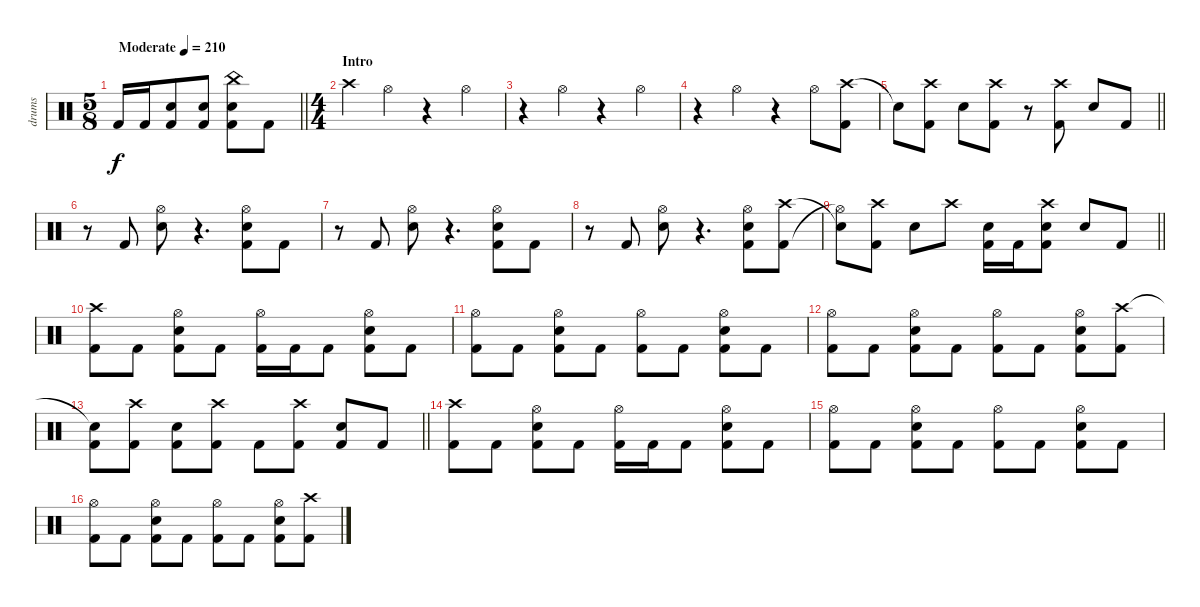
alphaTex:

\track ("drums" "drums") {solo instrument percussion}
\staff {score}
\articulation defaults
\ts (5 8)
\tempo (210 "Moderate")
\clef neutral
\barLineRight lightlight
\ks c "Kick (hit) 2".16{dy f} "Kick (hit) 2".16
("Electric Snare (hit)" "Kick (hit) 2").8 ("Electric Snare (hit)" "Kick (hit) 2").8 ("China (hit)" "Electric Snare (hit)" "Kick (hit) 2").8 "Kick (hit) 2".8 |
\ts (4 4)
\section ("" "Intro")
"Crash high (hit)".4 "Hi-Hat (open)".4 r.4 "Hi-Hat (open)".4 |
r.4 "Hi-Hat (open)".4 r.4 "Hi-Hat (open)".4 |
r.4 "Hi-Hat (open)".4 r.4 "Hi-Hat (open)".8 ("Crash high (hit)" "Kick (hit) 2").8 |
\barLineRight lightlight "Snare (hit)"{t}.8
("Crash high (hit)" "Kick (hit) 2").8 "Electric Snare (hit)".8 ("Crash high (hit)" "Kick (hit) 2").8 r.8 ("Crash high (hit)" "Kick (hit) 2").8 "Electric Snare (hit)".8 "Kick (hit) 2".8 |
r.8 "Kick (hit) 2".8 ("Hi-Hat (open)" "Electric Snare (hit)").8 r.4{d} ("Hi-Hat (open)" "Electric Snare (hit)" "Kick (hit) 2").8 "Kick (hit) 2".8 |
r.8 "Kick (hit) 2".8 ("Hi-Hat (open)" "Electric Snare (hit)").8 r.4{d} ("Hi-Hat (open)" "Electric Snare (hit)" "Kick (hit) 2").8 "Kick (hit) 2".8 |
r.8 "Kick (hit) 2".8 ("Hi-Hat (open)" "Electric Snare (hit)").8 r.4{d} ("Hi-Hat (open)" "Electric Snare (hit)" "Kick (hit) 2").8 ("Crash high (hit)" "Kick (hit) 2").8 |
\barLineRight lightlight
("Snare (hit)"{t} "Hi-Hat (open)"{t}).8 ("Crash high (hit)" "Kick (hit) 2").8 "Electric Snare (hit)".8 "Crash high (hit)".8 ("Electric Snare (hit)" "Kick (hit) 2").16 "Kick (hit) 2".16 ("Crash high (hit)" "Electric Snare (hit)" "Kick (hit) 2").8 "Electric Snare (hit)".8 "Kick (hit) 2".8 |
("Crash high (hit)" "Kick (hit) 2").8 "Kick (hit) 2".8 ("Hi-Hat (open)" "Electric Snare (hit)" "Kick (hit) 2").8 "Kick (hit) 2".8 ("Hi-Hat (open)" "Kick (hit) 2").16 "Kick (hit) 2".16 "Kick (hit) 2".8 ("Hi-Hat (open)" "Electric Snare (hit)" "Kick (hit) 2").8 "Kick (hit) 2".8 |
("Hi-Hat (open)" "Kick (hit) 2").8 "Kick (hit) 2".8 ("Hi-Hat (open)" "Electric Snare (hit)" "Kick (hit) 2").8 "Kick (hit) 2".8 ("Hi-Hat (open)" "Kick (hit) 2").8 "Kick (hit) 2".8 ("Hi-Hat (open)" "Electric Snare (hit)" "Kick (hit) 2").8 "Kick (hit) 2".8 |
("Hi-Hat (open)" "Kick (hit) 2").8 "Kick (hit) 2".8 ("Hi-Hat (open)" "Electric Snare (hit)" "Kick (hit) 2").8 "Kick (hit) 2".8 ("Hi-Hat (open)" "Kick (hit) 2").8 "Kick (hit) 2".8 ("Hi-Hat (open)" "Electric Snare (hit)" "Kick (hit) 2").8 ("Crash high (hit)" "Kick (hit) 2").8 |
\barLineRight lightlight
("Snare (hit)"{t} "Kick (hit) 2").8 ("Crash high (hit)" "Kick (hit) 2").8 ("Electric Snare (hit)" "Kick (hit) 2").8 ("Crash high (hit)" "Kick (hit) 2").8 "Kick (hit) 2".8 ("Crash high (hit)" "Kick (hit) 2").8 ("Electric Snare (hit)" "Kick (hit) 2").8 "Kick (hit) 2".8 |
("Crash high (hit)" "Kick (hit) 2").8 "Kick (hit) 2".8 ("Hi-Hat (open)" "Electric Snare (hit)" "Kick (hit) 2").8 "Kick (hit) 2".8 ("Hi-Hat (open)" "Kick (hit) 2").16 "Kick (hit) 2".16 "Kick (hit) 2".8 ("Hi-Hat (open)" "Electric Snare (hit)" "Kick (hit) 2").8 "Kick (hit) 2".8 |
("Hi-Hat (open)" "Kick (hit) 2").8 "Kick (hit) 2".8 ("Hi-Hat (open)" "Electric Snare (hit)" "Kick (hit) 2").8 "Kick (hit) 2".8 ("Hi-Hat (open)" "Kick (hit) 2").8 "Kick (hit) 2".8 ("Hi-Hat (open)" "Electric Snare (hit)" "Kick (hit) 2").8 "Kick (hit) 2".8 |
("Hi-Hat (open)" "Kick (hit) 2").8 "Kick (hit) 2".8 ("Hi-Hat (open)" "Electric Snare (hit)" "Kick (hit) 2").8 "Kick (hit) 2".8 ("Hi-Hat (open)" "Kick (hit) 2").8 "Kick (hit) 2".8 ("Hi-Hat (open)" "Electric Snare (hit)" "Kick (hit) 2").8 ("Crash high (hit)" "Kick (hit) 2").8
